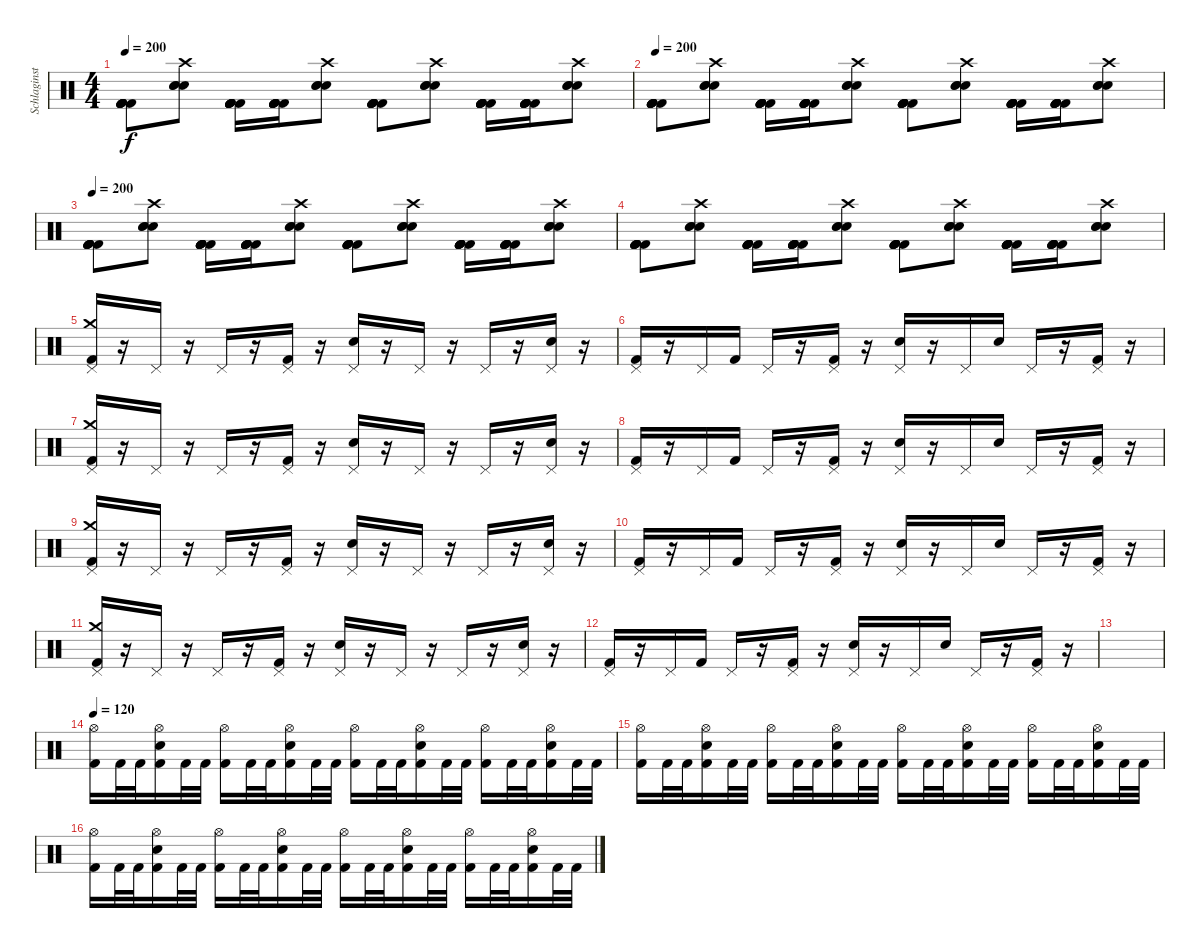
\track ("Schlaginstrumente - Auswahl" "Schlaginst") {instrument percussion}
\staff {score}
\articulation defaults
\ts (4 4)
\tempo 200
\clef neutral
\ks c
("Kick (hit) 2" "Kick (hit) 2" "Kick (hit) 2" "Kick (hit) 2" "Kick (hit) 2" "Kick (hit) 2").8{dy f} ("Electric Snare (hit)" "Electric Snare (hit)" "Electric Snare (hit)" "Crash high (hit)").8 ("Kick (hit) 2" "Kick (hit) 2" "Kick (hit) 2" "Kick (hit) 2" "Kick (hit) 2" "Kick (hit) 2").16 ("Kick (hit) 2" "Kick (hit) 2" "Kick (hit) 2" "Kick (hit) 2" "Kick (hit) 2" "Kick (hit) 2").16 ("Electric Snare (hit)" "Electric Snare (hit)" "Electric Snare (hit)" "Crash high (hit)").8 ("Kick (hit) 2" "Kick (hit) 2" "Kick (hit) 2" "Kick (hit) 2" "Kick (hit) 2" "Kick (hit) 2").8 ("Electric Snare (hit)" "Electric Snare (hit)" "Electric Snare (hit)" "Crash high (hit)").8 ("Kick (hit) 2" "Kick (hit) 2" "Kick (hit) 2" "Kick (hit) 2" "Kick (hit) 2" "Kick (hit) 2").16 ("Kick (hit) 2" "Kick (hit) 2" "Kick (hit) 2" "Kick (hit) 2" "Kick (hit) 2" "Kick (hit) 2").16 ("Electric Snare (hit)" "Electric Snare (hit)" "Electric Snare (hit)" "Crash high (hit)").8 |
\tempo 200
("Kick (hit) 2" "Kick (hit) 2" "Kick (hit) 2" "Kick (hit) 2" "Kick (hit) 2" "Kick (hit) 2").8 ("Electric Snare (hit)" "Electric Snare (hit)" "Electric Snare (hit)" "Crash high (hit)").8 ("Kick (hit) 2" "Kick (hit) 2" "Kick (hit) 2" "Kick (hit) 2" "Kick (hit) 2" "Kick (hit) 2").16 ("Kick (hit) 2" "Kick (hit) 2" "Kick (hit) 2" "Kick (hit) 2" "Kick (hit) 2" "Kick (hit) 2").16 ("Electric Snare (hit)" "Electric Snare (hit)" "Electric Snare (hit)" "Crash high (hit)").8 ("Kick (hit) 2" "Kick (hit) 2" "Kick (hit) 2" "Kick (hit) 2" "Kick (hit) 2" "Kick (hit) 2").8 ("Electric Snare (hit)" "Electric Snare (hit)" "Electric Snare (hit)" "Crash high (hit)").8 ("Kick (hit) 2" "Kick (hit) 2" "Kick (hit) 2" "Kick (hit) 2" "Kick (hit) 2" "Kick (hit) 2").16 ("Kick (hit) 2" "Kick (hit) 2" "Kick (hit) 2" "Kick (hit) 2" "Kick (hit) 2" "Kick (hit) 2").16 ("Electric Snare (hit)" "Electric Snare (hit)" "Electric Snare (hit)" "Crash high (hit)").8 |
\tempo 200
("Kick (hit) 2" "Kick (hit) 2" "Kick (hit) 2" "Kick (hit) 2" "Kick (hit) 2" "Kick (hit) 2").8 ("Electric Snare (hit)" "Electric Snare (hit)" "Electric Snare (hit)" "Crash high (hit)").8 ("Kick (hit) 2" "Kick (hit) 2" "Kick (hit) 2" "Kick (hit) 2" "Kick (hit) 2" "Kick (hit) 2").16 ("Kick (hit) 2" "Kick (hit) 2" "Kick (hit) 2" "Kick (hit) 2" "Kick (hit) 2" "Kick (hit) 2").16 ("Electric Snare (hit)" "Electric Snare (hit)" "Electric Snare (hit)" "Crash high (hit)").8 ("Kick (hit) 2" "Kick (hit) 2" "Kick (hit) 2" "Kick (hit) 2" "Kick (hit) 2" "Kick (hit) 2").8 ("Electric Snare (hit)" "Electric Snare (hit)" "Electric Snare (hit)" "Crash high (hit)").8 ("Kick (hit) 2" "Kick (hit) 2" "Kick (hit) 2" "Kick (hit) 2" "Kick (hit) 2" "Kick (hit) 2").16 ("Kick (hit) 2" "Kick (hit) 2" "Kick (hit) 2" "Kick (hit) 2" "Kick (hit) 2" "Kick (hit) 2").16 ("Electric Snare (hit)" "Electric Snare (hit)" "Electric Snare (hit)" "Crash high (hit)").8 |
("Kick (hit) 2" "Kick (hit) 2" "Kick (hit) 2" "Kick (hit) 2" "Kick (hit) 2" "Kick (hit) 2").8 ("Electric Snare (hit)" "Electric Snare (hit)" "Electric Snare (hit)" "Crash high (hit)").8 ("Kick (hit) 2" "Kick (hit) 2" "Kick (hit) 2" "Kick (hit) 2" "Kick (hit) 2" "Kick (hit) 2").16 ("Kick (hit) 2" "Kick (hit) 2" "Kick (hit) 2" "Kick (hit) 2" "Kick (hit) 2" "Kick (hit) 2").16 ("Electric Snare (hit)" "Electric Snare (hit)" "Electric Snare (hit)" "Crash high (hit)").8 ("Kick (hit) 2" "Kick (hit) 2" "Kick (hit) 2" "Kick (hit) 2" "Kick (hit) 2" "Kick (hit) 2").8 ("Electric Snare (hit)" "Electric Snare (hit)" "Electric Snare (hit)" "Crash high (hit)").8 ("Kick (hit) 2" "Kick (hit) 2" "Kick (hit) 2" "Kick (hit) 2" "Kick (hit) 2" "Kick (hit) 2").16 ("Kick (hit) 2" "Kick (hit) 2" "Kick (hit) 2" "Kick (hit) 2" "Kick (hit) 2" "Kick (hit) 2").16 ("Electric Snare (hit)" "Electric Snare (hit)" "Electric Snare (hit)" "Crash high (hit)").8 |
("Crash medium (hit)" "Pedal Hi-Hat (hit)" "Kick (hit) 2").16 r.16 "Pedal Hi-Hat (hit)".16 r.16 "Pedal Hi-Hat (hit)".16 r.16 ("Pedal Hi-Hat (hit)" "Kick (hit) 2").16 r.16 ("Pedal Hi-Hat (hit)" "Electric Snare (hit)").16 r.16 "Pedal Hi-Hat (hit)".16 r.16 "Pedal Hi-Hat (hit)".16 r.16 ("Pedal Hi-Hat (hit)" "Electric Snare (hit)").16 r.16 |
("Pedal Hi-Hat (hit)" "Kick (hit) 2").16 r.16 "Pedal Hi-Hat (hit)".16 "Kick (hit) 2".16 "Pedal Hi-Hat (hit)".16 r.16 ("Pedal Hi-Hat (hit)" "Kick (hit) 2").16 r.16 ("Pedal Hi-Hat (hit)" "Electric Snare (hit)").16 r.16 "Pedal Hi-Hat (hit)".16 "Electric Snare (hit)".16 "Pedal Hi-Hat (hit)".16 r.16 ("Pedal Hi-Hat (hit)" "Kick (hit) 2").16 r.16 |
("Crash medium (hit)" "Pedal Hi-Hat (hit)" "Kick (hit) 2").16 r.16 "Pedal Hi-Hat (hit)".16 r.16 "Pedal Hi-Hat (hit)".16 r.16 ("Pedal Hi-Hat (hit)" "Kick (hit) 2").16 r.16 ("Pedal Hi-Hat (hit)" "Electric Snare (hit)").16 r.16 "Pedal Hi-Hat (hit)".16 r.16 "Pedal Hi-Hat (hit)".16 r.16 ("Pedal Hi-Hat (hit)" "Electric Snare (hit)").16 r.16 |
("Pedal Hi-Hat (hit)" "Kick (hit) 2").16 r.16 "Pedal Hi-Hat (hit)".16 "Kick (hit) 2".16 "Pedal Hi-Hat (hit)".16 r.16 ("Pedal Hi-Hat (hit)" "Kick (hit) 2").16 r.16 ("Pedal Hi-Hat (hit)" "Electric Snare (hit)").16 r.16 "Pedal Hi-Hat (hit)".16 "Electric Snare (hit)".16 "Pedal Hi-Hat (hit)".16 r.16 ("Pedal Hi-Hat (hit)" "Kick (hit) 2").16 r.16 |
("Crash medium (hit)" "Pedal Hi-Hat (hit)" "Kick (hit) 2").16 r.16 "Pedal Hi-Hat (hit)".16 r.16 "Pedal Hi-Hat (hit)".16 r.16 ("Pedal Hi-Hat (hit)" "Kick (hit) 2").16 r.16 ("Pedal Hi-Hat (hit)" "Electric Snare (hit)").16 r.16 "Pedal Hi-Hat (hit)".16 r.16 "Pedal Hi-Hat (hit)".16 r.16 ("Pedal Hi-Hat (hit)" "Electric Snare (hit)").16 r.16 |
("Pedal Hi-Hat (hit)" "Kick (hit) 2").16 r.16 "Pedal Hi-Hat (hit)".16 "Kick (hit) 2".16 "Pedal Hi-Hat (hit)".16 r.16 ("Pedal Hi-Hat (hit)" "Kick (hit) 2").16 r.16 ("Pedal Hi-Hat (hit)" "Electric Snare (hit)").16 r.16 "Pedal Hi-Hat (hit)".16 "Electric Snare (hit)".16 "Pedal Hi-Hat (hit)".16 r.16 ("Pedal Hi-Hat (hit)" "Kick (hit) 2").16 r.16 |
("Crash medium (hit)" "Pedal Hi-Hat (hit)" "Kick (hit) 2").16 r.16 "Pedal Hi-Hat (hit)".16 r.16 "Pedal Hi-Hat (hit)".16 r.16 ("Pedal Hi-Hat (hit)" "Kick (hit) 2").16 r.16 ("Pedal Hi-Hat (hit)" "Electric Snare (hit)").16 r.16 "Pedal Hi-Hat (hit)".16 r.16 "Pedal Hi-Hat (hit)".16 r.16 ("Pedal Hi-Hat (hit)" "Electric Snare (hit)").16 r.16 |
("Pedal Hi-Hat (hit)" "Kick (hit) 2").16 r.16 "Pedal Hi-Hat (hit)".16 "Kick (hit) 2".16 "Pedal Hi-Hat (hit)".16 r.16 ("Pedal Hi-Hat (hit)" "Kick (hit) 2").16 r.16 ("Pedal Hi-Hat (hit)" "Electric Snare (hit)").16 r.16 "Pedal Hi-Hat (hit)".16 "Electric Snare (hit)".16 "Pedal Hi-Hat (hit)".16 r.16 ("Pedal Hi-Hat (hit)" "Kick (hit) 2").16 r.16 |
|
\tempo 120
("Hi-Hat (open)" "Kick (hit) 2").16 "Kick (hit) 2".32 "Kick (hit) 2".32 ("Hi-Hat (open)" "Electric Snare (hit)" "Kick (hit) 2").16 "Kick (hit) 2".32 "Kick (hit) 2".32 ("Hi-Hat (open)" "Kick (hit) 2").16 "Kick (hit) 2".32 "Kick (hit) 2".32 ("Hi-Hat (open)" "Electric Snare (hit)" "Kick (hit) 2").16 "Kick (hit) 2".32 "Kick (hit) 2".32 ("Hi-Hat (open)" "Kick (hit) 2").16 "Kick (hit) 2".32 "Kick (hit) 2".32 ("Hi-Hat (open)" "Electric Snare (hit)" "Kick (hit) 2").16 "Kick (hit) 2".32 "Kick (hit) 2".32 ("Hi-Hat (open)" "Kick (hit) 2").16 "Kick (hit) 2".32 "Kick (hit) 2".32 ("Hi-Hat (open)" "Electric Snare (hit)" "Kick (hit) 2").16 "Kick (hit) 2".32 "Kick (hit) 2".32 |
("Hi-Hat (open)" "Kick (hit) 2").16 "Kick (hit) 2".32 "Kick (hit) 2".32 ("Hi-Hat (open)" "Electric Snare (hit)" "Kick (hit) 2").16 "Kick (hit) 2".32 "Kick (hit) 2".32 ("Hi-Hat (open)" "Kick (hit) 2").16 "Kick (hit) 2".32 "Kick (hit) 2".32 ("Hi-Hat (open)" "Electric Snare (hit)" "Kick (hit) 2").16 "Kick (hit) 2".32 "Kick (hit) 2".32 ("Hi-Hat (open)" "Kick (hit) 2").16 "Kick (hit) 2".32 "Kick (hit) 2".32 ("Hi-Hat (open)" "Electric Snare (hit)" "Kick (hit) 2").16 "Kick (hit) 2".32 "Kick (hit) 2".32 ("Hi-Hat (open)" "Kick (hit) 2").16 "Kick (hit) 2".32 "Kick (hit) 2".32 ("Hi-Hat (open)" "Electric Snare (hit)" "Kick (hit) 2").16 "Kick (hit) 2".32 "Kick (hit) 2".32 |
("Hi-Hat (open)" "Kick (hit) 2").16 "Kick (hit) 2".32 "Kick (hit) 2".32 ("Hi-Hat (open)" "Electric Snare (hit)" "Kick (hit) 2").16 "Kick (hit) 2".32 "Kick (hit) 2".32 ("Hi-Hat (open)" "Kick (hit) 2").16 "Kick (hit) 2".32 "Kick (hit) 2".32 ("Hi-Hat (open)" "Electric Snare (hit)" "Kick (hit) 2").16 "Kick (hit) 2".32 "Kick (hit) 2".32 ("Hi-Hat (open)" "Kick (hit) 2").16 "Kick (hit) 2".32 "Kick (hit) 2".32 ("Hi-Hat (open)" "Electric Snare (hit)" "Kick (hit) 2").16 "Kick (hit) 2".32 "Kick (hit) 2".32 ("Hi-Hat (open)" "Kick (hit) 2").16 "Kick (hit) 2".32 "Kick (hit) 2".32 ("Hi-Hat (open)" "Electric Snare (hit)" "Kick (hit) 2").16 "Kick (hit) 2".32 "Kick (hit) 2".32
